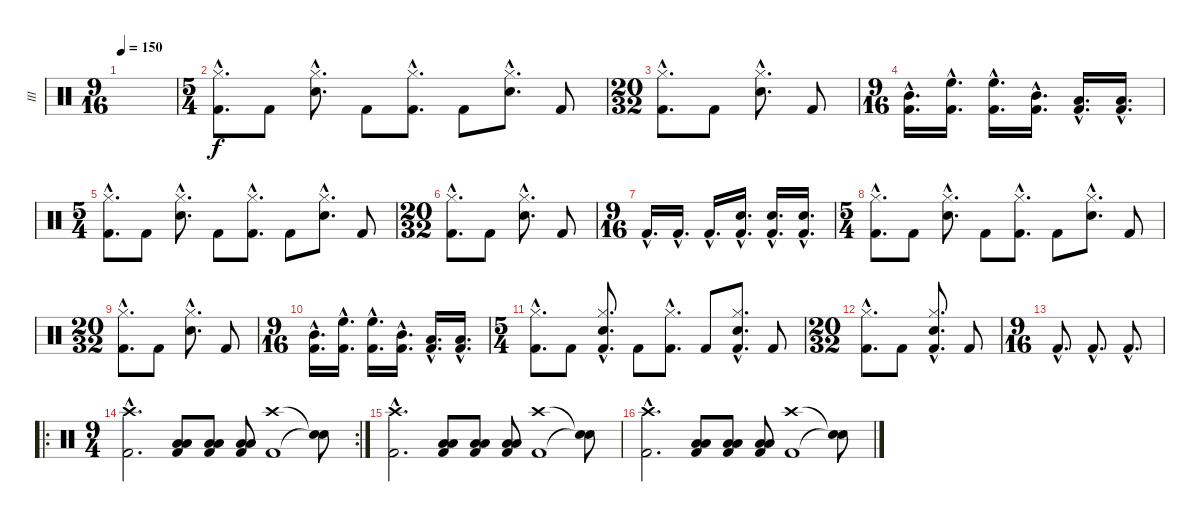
\track ("III" "III") {instrument percussion}
\staff {score}
\articulation defaults
\ts (9 16)
\tempo 150
\clef neutral
\ks c
|
\ts (5 4)
("Kick (hit) 2"{hac} "Hi-Hat (closed)"{hac}).8{d} "Kick (hit) 2".8 ("Hi-Hat (closed)"{hac} "Snare (hit) 2"{hac}).8{d} "Kick (hit) 2".8 ("Kick (hit) 2"{hac} "Hi-Hat (closed)"{hac}).8{d} "Kick (hit) 2".8 ("Hi-Hat (closed)"{hac} "Snare (hit) 2"{hac}).8{d} "Kick (hit) 2".8 |
\ts (20 32)
("Kick (hit) 2"{hac} "Hi-Hat (closed)"{hac}).8{d} "Kick (hit) 2".8 ("Hi-Hat (closed)"{hac} "Snare (hit) 2"{hac}).8{d} "Kick (hit) 2".8 |
\ts (9 16)
("Kick (hit) 2"{hac} "Mid Tom (hit)"{hac}).16{d} ("Kick (hit) 2"{hac} "High Floor Tom (hit)"{hac}).16{d} ("Kick (hit) 2"{hac} "High Floor Tom (hit)"{hac}).16{d} ("Kick (hit) 2"{hac} "Mid Tom (hit)"{hac}).16{d} ("Kick (hit) 2"{hac} "Low Tom (hit)"{hac}).16{d} ("Kick (hit) 2"{hac} "Low Floor Tom (hit)"{hac}).16{d} |
\ts (5 4)
("Kick (hit) 2"{hac} "Hi-Hat (closed)"{hac}).8{d} "Kick (hit) 2".8 ("Hi-Hat (closed)"{hac} "Snare (hit) 2"{hac}).8{d} "Kick (hit) 2".8 ("Kick (hit) 2"{hac} "Hi-Hat (closed)"{hac}).8{d} "Kick (hit) 2".8 ("Hi-Hat (closed)"{hac} "Snare (hit) 2"{hac}).8{d} "Kick (hit) 2".8 |
\ts (20 32)
("Kick (hit) 2"{hac} "Hi-Hat (closed)"{hac}).8{d} "Kick (hit) 2".8 ("Hi-Hat (closed)"{hac} "Snare (hit) 2"{hac}).8{d} "Kick (hit) 2".8 |
\ts (9 16)
"Kick (hit) 2"{hac}.16{d} "Kick (hit) 2"{hac}.16{d} "Kick (hit) 2"{hac}.16{d} ("Kick (hit) 2"{hac} "Snare (hit) 2"{hac}).16{d} ("Kick (hit) 2"{hac} "Snare (hit) 2"{hac}).16{d} ("Kick (hit) 2"{hac} "Snare (hit) 2"{hac}).16{d} |
\ts (5 4)
("Kick (hit) 2"{hac} "Hi-Hat (closed)"{hac}).8{d} "Kick (hit) 2".8 ("Hi-Hat (closed)"{hac} "Snare (hit) 2"{hac}).8{d} "Kick (hit) 2".8 ("Kick (hit) 2"{hac} "Hi-Hat (closed)"{hac}).8{d} "Kick (hit) 2".8 ("Hi-Hat (closed)"{hac} "Snare (hit) 2"{hac}).8{d} "Kick (hit) 2".8 |
\ts (20 32)
("Kick (hit) 2"{hac} "Hi-Hat (closed)"{hac}).8{d} "Kick (hit) 2".8 ("Hi-Hat (closed)"{hac} "Snare (hit) 2"{hac}).8{d} "Kick (hit) 2".8 |
\ts (9 16)
("Kick (hit) 2"{hac} "Mid Tom (hit)"{hac}).16{d} ("Kick (hit) 2"{hac} "High Floor Tom (hit)"{hac}).16{d} ("Kick (hit) 2"{hac} "High Floor Tom (hit)"{hac}).16{d} ("Kick (hit) 2"{hac} "Mid Tom (hit)"{hac}).16{d} ("Kick (hit) 2"{hac} "Low Tom (hit)"{hac}).16{d} ("Kick (hit) 2"{hac} "Low Floor Tom (hit)"{hac}).16{d} |
\ts (5 4)
("Kick (hit) 2"{hac} "Hi-Hat (closed)"{hac}).8{d} "Kick (hit) 2".8 ("Kick (hit) 2"{hac} "Hi-Hat (closed)"{hac} "Snare (hit) 2"{hac}).8{d} "Kick (hit) 2".8 ("Kick (hit) 2"{hac} "Hi-Hat (closed)"{hac}).8{d} "Kick (hit) 2".8 ("Kick (hit) 2"{hac} "Hi-Hat (closed)"{hac} "Snare (hit) 2"{hac}).8{d} "Kick (hit) 2".8 |
\ts (20 32)
("Kick (hit) 2"{hac} "Hi-Hat (closed)"{hac}).8{d} "Kick (hit) 2".8 ("Kick (hit) 2"{hac} "Hi-Hat (closed)"{hac} "Snare (hit) 2"{hac}).8{d} "Kick (hit) 2".8 |
\ts (9 16)
"Kick (hit) 2"{hac}.8{d} "Kick (hit) 2"{hac}.8{d} "Kick (hit) 2"{hac}.8{d} |
\ro
\rc 2
\ts (9 4)
("Crash high (hit)"{hac} "Kick (hit) 2"{hac}).2{d} ("Low Floor Tom (hit)" "Kick (hit) 2" "Low Tom (hit)").8 ("Low Floor Tom (hit)" "Kick (hit) 2" "Low Tom (hit)").8 ("Low Floor Tom (hit)" "Kick (hit) 2" "Low Tom (hit)").8 ("Crash high (hit)" "Kick (hit) 2").1 ("Snare (hit)"{t} "Snare (hit)"{t}).8 |
("Crash high (hit)"{hac} "Kick (hit) 2"{hac}).2{d} ("Low Floor Tom (hit)" "Kick (hit) 2" "Low Tom (hit)").8 ("Low Floor Tom (hit)" "Kick (hit) 2" "Low Tom (hit)").8 ("Low Floor Tom (hit)" "Kick (hit) 2" "Low Tom (hit)").8 ("Crash high (hit)" "Kick (hit) 2").1 ("Snare (hit)"{t} "Snare (hit)"{t}).8 |
("Crash high (hit)"{hac} "Kick (hit) 2"{hac}).2{d} ("Low Floor Tom (hit)" "Kick (hit) 2" "Low Tom (hit)").8 ("Low Floor Tom (hit)" "Kick (hit) 2" "Low Tom (hit)").8 ("Low Floor Tom (hit)" "Kick (hit) 2" "Low Tom (hit)").8 ("Crash high (hit)" "Kick (hit) 2").1 ("Snare (hit)"{t} "Snare (hit)"{t}).8
